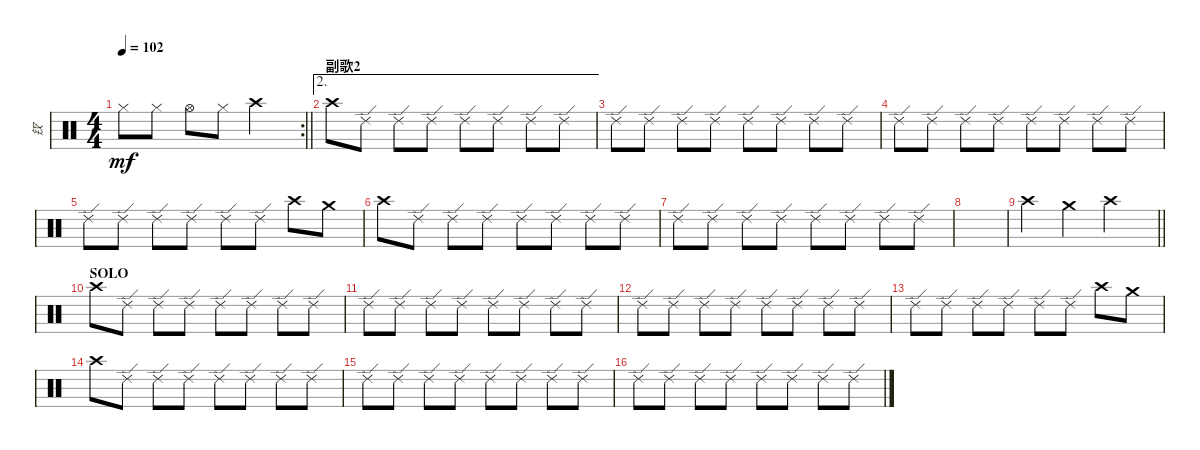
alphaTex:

\track ("钗" "钗") {instrument percussion}
\staff {score}
\articulation defaults
\rc 2
\ts (4 4)
\tempo 102
\clef neutral
\barLineRight lightlight
\ks c "Hi-Hat (closed)".8{dy mf} "Hi-Hat (closed)".8 "Hi-Hat (open)".8 "Hi-Hat (closed)".8 "Crash high (hit)".2
|
\ae 2
\section ("" "副歌2")
"Crash high (hit)".8 "Ride (edge) 2".8 "Ride (edge) 2".8 "Ride (edge) 2".8 "Ride (edge) 2".8 "Ride (edge) 2".8 "Ride (edge) 2".8 "Ride (edge) 2".8 |
"Ride (edge) 2".8 "Ride (edge) 2".8 "Ride (edge) 2".8 "Ride (edge) 2".8 "Ride (edge) 2".8 "Ride (edge) 2".8 "Ride (edge) 2".8 "Ride (edge) 2".8 |
"Ride (edge) 2".8 "Ride (edge) 2".8 "Ride (edge) 2".8 "Ride (edge) 2".8 "Ride (edge) 2".8 "Ride (edge) 2".8 "Ride (edge) 2".8 "Ride (edge) 2".8 |
"Ride (edge) 2".8 "Ride (edge) 2".8 "Ride (edge) 2".8 "Ride (edge) 2".8 "Ride (edge) 2".8 "Ride (edge) 2".8 "Crash high (hit)".8 "Crash medium (hit)".8 |
"Crash high (hit)".8 "Ride (edge) 2".8 "Ride (edge) 2".8 "Ride (edge) 2".8 "Ride (edge) 2".8 "Ride (edge) 2".8 "Ride (edge) 2".8 "Ride (edge) 2".8 |
"Ride (edge) 2".8 "Ride (edge) 2".8 "Ride (edge) 2".8 "Ride (edge) 2".8 "Ride (edge) 2".8 "Ride (edge) 2".8 "Ride (edge) 2".8 "Ride (edge) 2".8 |
|
\barLineRight lightlight "Crash high (hit)".4 "Crash medium (hit)".4 "Crash high (hit)".2
|
\section ("" "SOLO")
"Crash high (hit)".8 "Ride (edge) 2".8 "Ride (edge) 2".8 "Ride (edge) 2".8 "Ride (edge) 2".8 "Ride (edge) 2".8 "Ride (edge) 2".8 "Ride (edge) 2".8 |
"Ride (edge) 2".8 "Ride (edge) 2".8 "Ride (edge) 2".8 "Ride (edge) 2".8 "Ride (edge) 2".8 "Ride (edge) 2".8 "Ride (edge) 2".8 "Ride (edge) 2".8 |
"Ride (edge) 2".8 "Ride (edge) 2".8 "Ride (edge) 2".8 "Ride (edge) 2".8 "Ride (edge) 2".8 "Ride (edge) 2".8 "Ride (edge) 2".8 "Ride (edge) 2".8 |
"Ride (edge) 2".8 "Ride (edge) 2".8 "Ride (edge) 2".8 "Ride (edge) 2".8 "Ride (edge) 2".8 "Ride (edge) 2".8 "Crash high (hit)".8 "Crash medium (hit)".8 |
"Crash high (hit)".8 "Ride (edge) 2".8 "Ride (edge) 2".8 "Ride (edge) 2".8 "Ride (edge) 2".8 "Ride (edge) 2".8 "Ride (edge) 2".8 "Ride (edge) 2".8 |
"Ride (edge) 2".8 "Ride (edge) 2".8 "Ride (edge) 2".8 "Ride (edge) 2".8 "Ride (edge) 2".8 "Ride (edge) 2".8 "Ride (edge) 2".8 "Ride (edge) 2".8 |
"Ride (edge) 2".8 "Ride (edge) 2".8 "Ride (edge) 2".8 "Ride (edge) 2".8 "Ride (edge) 2".8 "Ride (edge) 2".8 "Ride (edge) 2".8 "Ride (edge) 2".8
